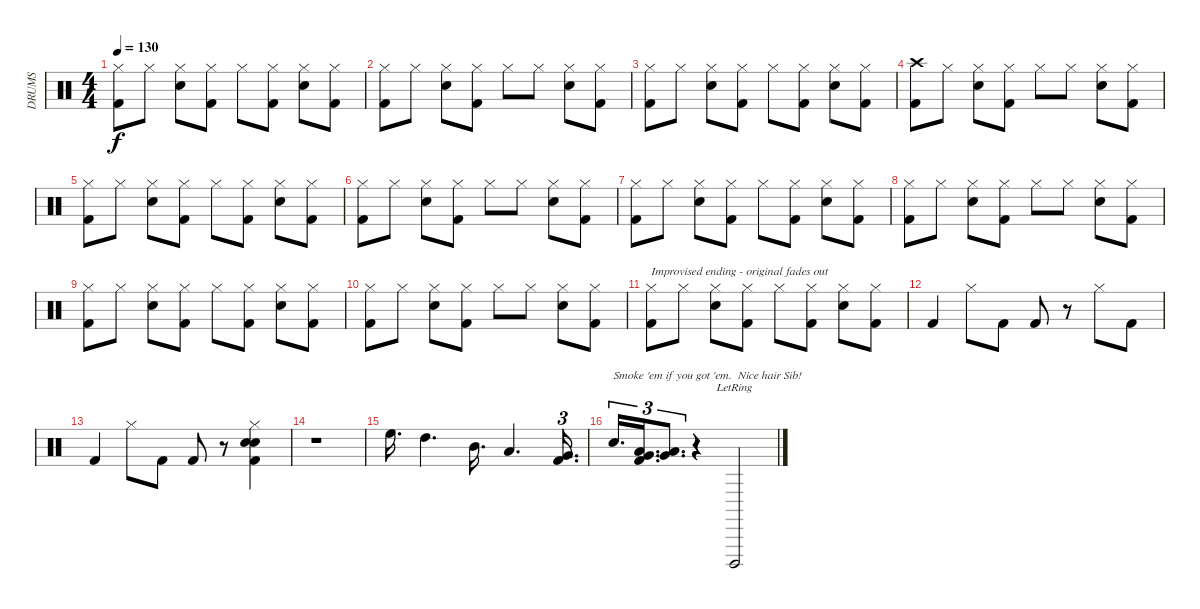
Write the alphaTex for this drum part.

\track ("DRUMS" "DRUMS") {instrument percussion}
\staff {score}
\articulation defaults
\ts (4 4)
\tempo 130
\clef neutral
\ks c
("Hi-Hat (closed)" "Kick (hit) 2").8{dy f} "Hi-Hat (closed)".8 ("Hi-Hat (closed)" "Snare (hit) 2").8 ("Hi-Hat (closed)" "Kick (hit) 2").8 "Hi-Hat (closed)".8 ("Hi-Hat (closed)" "Kick (hit) 2").8 ("Hi-Hat (closed)" "Snare (hit) 2").8 ("Hi-Hat (closed)" "Kick (hit) 2").8 |
("Hi-Hat (closed)" "Kick (hit) 2").8 "Hi-Hat (closed)".8 ("Hi-Hat (closed)" "Snare (hit) 2").8 ("Hi-Hat (closed)" "Kick (hit) 2").8 "Hi-Hat (closed)".8 "Hi-Hat (closed)".8 ("Hi-Hat (closed)" "Snare (hit) 2").8 ("Hi-Hat (closed)" "Kick (hit) 2").8 |
("Hi-Hat (closed)" "Kick (hit) 2").8 "Hi-Hat (closed)".8 ("Hi-Hat (closed)" "Snare (hit) 2").8 ("Hi-Hat (closed)" "Kick (hit) 2").8 "Hi-Hat (closed)".8 ("Hi-Hat (closed)" "Kick (hit) 2").8 ("Hi-Hat (closed)" "Snare (hit) 2").8 ("Hi-Hat (closed)" "Kick (hit) 2").8 |
("Crash high (hit)" "Kick (hit) 2").8 "Hi-Hat (closed)".8 ("Hi-Hat (closed)" "Snare (hit) 2").8 ("Hi-Hat (closed)" "Kick (hit) 2").8 "Hi-Hat (closed)".8 "Hi-Hat (closed)".8 ("Hi-Hat (closed)" "Snare (hit) 2").8 ("Hi-Hat (closed)" "Kick (hit) 2").8 |
("Hi-Hat (closed)" "Kick (hit) 2").8 "Hi-Hat (closed)".8 ("Hi-Hat (closed)" "Snare (hit) 2").8 ("Hi-Hat (closed)" "Kick (hit) 2").8 "Hi-Hat (closed)".8 ("Hi-Hat (closed)" "Kick (hit) 2").8 ("Hi-Hat (closed)" "Snare (hit) 2").8 ("Hi-Hat (closed)" "Kick (hit) 2").8 |
("Hi-Hat (closed)" "Kick (hit) 2").8 "Hi-Hat (closed)".8 ("Hi-Hat (closed)" "Snare (hit) 2").8 ("Hi-Hat (closed)" "Kick (hit) 2").8 "Hi-Hat (closed)".8 "Hi-Hat (closed)".8 ("Hi-Hat (closed)" "Snare (hit) 2").8 ("Hi-Hat (closed)" "Kick (hit) 2").8 |
("Hi-Hat (closed)" "Kick (hit) 2").8 "Hi-Hat (closed)".8 ("Hi-Hat (closed)" "Snare (hit) 2").8 ("Hi-Hat (closed)" "Kick (hit) 2").8 "Hi-Hat (closed)".8 ("Hi-Hat (closed)" "Kick (hit) 2").8 ("Hi-Hat (closed)" "Snare (hit) 2").8 ("Hi-Hat (closed)" "Kick (hit) 2").8 |
("Hi-Hat (closed)" "Kick (hit) 2").8 "Hi-Hat (closed)".8 ("Hi-Hat (closed)" "Snare (hit) 2").8 ("Hi-Hat (closed)" "Kick (hit) 2").8 "Hi-Hat (closed)".8 "Hi-Hat (closed)".8 ("Hi-Hat (closed)" "Snare (hit) 2").8 ("Hi-Hat (closed)" "Kick (hit) 2").8 |
("Hi-Hat (closed)" "Kick (hit) 2").8 "Hi-Hat (closed)".8 ("Hi-Hat (closed)" "Snare (hit) 2").8 ("Hi-Hat (closed)" "Kick (hit) 2").8 "Hi-Hat (closed)".8 ("Hi-Hat (closed)" "Kick (hit) 2").8 ("Hi-Hat (closed)" "Snare (hit) 2").8 ("Hi-Hat (closed)" "Kick (hit) 2").8 |
("Hi-Hat (closed)" "Kick (hit) 2").8 "Hi-Hat (closed)".8 ("Hi-Hat (closed)" "Snare (hit) 2").8 ("Hi-Hat (closed)" "Kick (hit) 2").8 "Hi-Hat (closed)".8 "Hi-Hat (closed)".8 ("Hi-Hat (closed)" "Snare (hit) 2").8 ("Hi-Hat (closed)" "Kick (hit) 2").8 |
("Hi-Hat (closed)" "Kick (hit) 2").8{txt "Improvised ending - original fades out"} "Hi-Hat (closed)".8 ("Hi-Hat (closed)" "Snare (hit) 2").8 ("Hi-Hat (closed)" "Kick (hit) 2").8 "Hi-Hat (closed)".8 ("Hi-Hat (closed)" "Kick (hit) 2").8 ("Hi-Hat (closed)" "Snare (hit) 2").8 ("Hi-Hat (closed)" "Kick (hit) 2").8 |
"Kick (hit) 2".4 "Hi-Hat (closed)".8 "Kick (hit) 2".8 "Kick (hit) 2".8 r.8 "Hi-Hat (closed)".8 "Kick (hit) 2".8 |
"Kick (hit) 2".4 "Hi-Hat (closed)".8 "Kick (hit) 2".8 "Kick (hit) 2".8 r.8 ("Hi-Hat (closed)" "Snare (hit) 2" "Snare (hit) 2" "Kick (hit) 2").4 |
r.1 |
"High Floor Tom (hit)".16{d balance 0} "High Tom (hit)".4{d} "Mid Tom (hit)".16{d balance 16} "Low Tom (hit)".4{d} ("Very Low Tom (hit)" "Kick (hit) 2").16{d tu (3 2) balance 8} |
"Electric Snare (hit)".16{d tu (3 2) txt "Smoke 'em if you got 'em.  Nice hair Sib!"} ("Low Tom (hit)" "Very Low Tom (hit)" "Kick (hit) 2").16{d tu (3 2)} ("Low Tom (hit)" "Very Low Tom (hit)").8{d tu (3 2)} r.4 "Cuica (open)"{lr}.2
